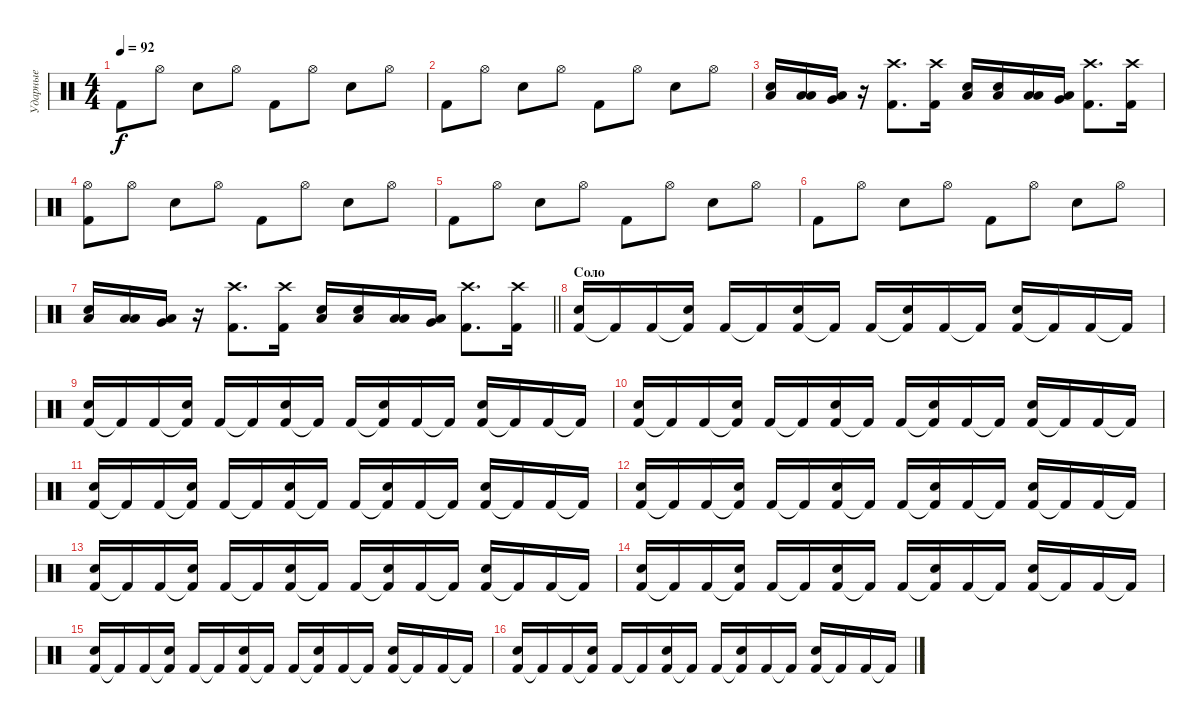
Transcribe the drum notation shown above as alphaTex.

\track ("Ударные" "Ударные") {instrument percussion}
\staff {score}
\articulation defaults
\ts (4 4)
\tempo 92
\clef neutral
\ks c "Kick (hit) 2".8{dy f} "Hi-Hat (open)".8 "Snare (hit) 2".8 "Hi-Hat (open)".8 "Kick (hit) 2".8 "Hi-Hat (open)".8 "Snare (hit) 2".8 "Hi-Hat (open)".8
|
"Kick (hit) 2".8 "Hi-Hat (open)".8 "Snare (hit) 2".8 "Hi-Hat (open)".8 "Kick (hit) 2".8 "Hi-Hat (open)".8 "Snare (hit) 2".8 "Hi-Hat (open)".8 |
("Snare (hit) 2" "Low Floor Tom (hit)").16 ("Low Tom (hit)" "Low Floor Tom (hit)").16 ("Very Low Tom (hit)" "Low Floor Tom (hit)").16 r.16 ("Kick (hit) 2" "Crash high (hit)").8{d} ("Kick (hit) 2" "Crash high (hit)").16 ("Snare (hit) 2" "Low Floor Tom (hit)").16 ("Snare (hit) 2" "Low Floor Tom (hit)").16 ("Low Tom (hit)" "Low Floor Tom (hit)").16 ("Very Low Tom (hit)" "Low Floor Tom (hit)").16 ("Kick (hit) 2" "Crash high (hit)").8{d} ("Kick (hit) 2" "Crash high (hit)").16 |
("Kick (hit) 2" "Hi-Hat (open)").8 "Hi-Hat (open)".8 "Snare (hit) 2".8 "Hi-Hat (open)".8 "Kick (hit) 2".8 "Hi-Hat (open)".8 "Snare (hit) 2".8 "Hi-Hat (open)".8 |
"Kick (hit) 2".8 "Hi-Hat (open)".8 "Snare (hit) 2".8 "Hi-Hat (open)".8 "Kick (hit) 2".8 "Hi-Hat (open)".8 "Snare (hit) 2".8 "Hi-Hat (open)".8 |
"Kick (hit) 2".8 "Hi-Hat (open)".8 "Snare (hit) 2".8 "Hi-Hat (open)".8 "Kick (hit) 2".8 "Hi-Hat (open)".8 "Snare (hit) 2".8 "Hi-Hat (open)".8 |
\barLineRight lightlight
("Snare (hit) 2" "Low Floor Tom (hit)").16 ("Low Tom (hit)" "Low Floor Tom (hit)").16 ("Very Low Tom (hit)" "Low Floor Tom (hit)").16 r.16 ("Kick (hit) 2" "Crash high (hit)").8{d} ("Kick (hit) 2" "Crash high (hit)").16 ("Snare (hit) 2" "Low Floor Tom (hit)").16 ("Snare (hit) 2" "Low Floor Tom (hit)").16 ("Low Tom (hit)" "Low Floor Tom (hit)").16 ("Very Low Tom (hit)" "Low Floor Tom (hit)").16 ("Kick (hit) 2" "Crash high (hit)").8{d} ("Kick (hit) 2" "Crash high (hit)").16 |
\section ("" "Соло")
("Kick (hit) 2" "Snare (hit) 2").16 "Kick (hit) 2"{t}.16 "Kick (hit) 2".16 ("Kick (hit) 2"{t} "Snare (hit) 2").16 "Kick (hit) 2".16 "Kick (hit) 2"{t}.16 ("Kick (hit) 2" "Snare (hit) 2").16 "Kick (hit) 2"{t}.16 "Kick (hit) 2".16 ("Kick (hit) 2"{t} "Snare (hit) 2").16 "Kick (hit) 2".16 "Kick (hit) 2"{t}.16 ("Kick (hit) 2" "Snare (hit) 2").16 "Kick (hit) 2"{t}.16 "Kick (hit) 2".16 "Kick (hit) 2"{t}.16 |
("Kick (hit) 2" "Snare (hit) 2").16 "Kick (hit) 2"{t}.16 "Kick (hit) 2".16 ("Kick (hit) 2"{t} "Snare (hit) 2").16 "Kick (hit) 2".16 "Kick (hit) 2"{t}.16 ("Kick (hit) 2" "Snare (hit) 2").16 "Kick (hit) 2"{t}.16 "Kick (hit) 2".16 ("Kick (hit) 2"{t} "Snare (hit) 2").16 "Kick (hit) 2".16 "Kick (hit) 2"{t}.16 ("Kick (hit) 2" "Snare (hit) 2").16 "Kick (hit) 2"{t}.16 "Kick (hit) 2".16 "Kick (hit) 2"{t}.16 |
("Kick (hit) 2" "Snare (hit) 2").16 "Kick (hit) 2"{t}.16 "Kick (hit) 2".16 ("Kick (hit) 2"{t} "Snare (hit) 2").16 "Kick (hit) 2".16 "Kick (hit) 2"{t}.16 ("Kick (hit) 2" "Snare (hit) 2").16 "Kick (hit) 2"{t}.16 "Kick (hit) 2".16 ("Kick (hit) 2"{t} "Snare (hit) 2").16 "Kick (hit) 2".16 "Kick (hit) 2"{t}.16 ("Kick (hit) 2" "Snare (hit) 2").16 "Kick (hit) 2"{t}.16 "Kick (hit) 2".16 "Kick (hit) 2"{t}.16 |
("Kick (hit) 2" "Snare (hit) 2").16 "Kick (hit) 2"{t}.16 "Kick (hit) 2".16 ("Kick (hit) 2"{t} "Snare (hit) 2").16 "Kick (hit) 2".16 "Kick (hit) 2"{t}.16 ("Kick (hit) 2" "Snare (hit) 2").16 "Kick (hit) 2"{t}.16 "Kick (hit) 2".16 ("Kick (hit) 2"{t} "Snare (hit) 2").16 "Kick (hit) 2".16 "Kick (hit) 2"{t}.16 ("Kick (hit) 2" "Snare (hit) 2").16 "Kick (hit) 2"{t}.16 "Kick (hit) 2".16 "Kick (hit) 2"{t}.16 |
("Kick (hit) 2" "Snare (hit) 2").16 "Kick (hit) 2"{t}.16 "Kick (hit) 2".16 ("Kick (hit) 2"{t} "Snare (hit) 2").16 "Kick (hit) 2".16 "Kick (hit) 2"{t}.16 ("Kick (hit) 2" "Snare (hit) 2").16 "Kick (hit) 2"{t}.16 "Kick (hit) 2".16 ("Kick (hit) 2"{t} "Snare (hit) 2").16 "Kick (hit) 2".16 "Kick (hit) 2"{t}.16 ("Kick (hit) 2" "Snare (hit) 2").16 "Kick (hit) 2"{t}.16 "Kick (hit) 2".16 "Kick (hit) 2"{t}.16 |
("Kick (hit) 2" "Snare (hit) 2").16 "Kick (hit) 2"{t}.16 "Kick (hit) 2".16 ("Kick (hit) 2"{t} "Snare (hit) 2").16 "Kick (hit) 2".16 "Kick (hit) 2"{t}.16 ("Kick (hit) 2" "Snare (hit) 2").16 "Kick (hit) 2"{t}.16 "Kick (hit) 2".16 ("Kick (hit) 2"{t} "Snare (hit) 2").16 "Kick (hit) 2".16 "Kick (hit) 2"{t}.16 ("Kick (hit) 2" "Snare (hit) 2").16 "Kick (hit) 2"{t}.16 "Kick (hit) 2".16 "Kick (hit) 2"{t}.16 |
("Kick (hit) 2" "Snare (hit) 2").16 "Kick (hit) 2"{t}.16 "Kick (hit) 2".16 ("Kick (hit) 2"{t} "Snare (hit) 2").16 "Kick (hit) 2".16 "Kick (hit) 2"{t}.16 ("Kick (hit) 2" "Snare (hit) 2").16 "Kick (hit) 2"{t}.16 "Kick (hit) 2".16 ("Kick (hit) 2"{t} "Snare (hit) 2").16 "Kick (hit) 2".16 "Kick (hit) 2"{t}.16 ("Kick (hit) 2" "Snare (hit) 2").16 "Kick (hit) 2"{t}.16 "Kick (hit) 2".16 "Kick (hit) 2"{t}.16 |
("Kick (hit) 2" "Snare (hit) 2").16 "Kick (hit) 2"{t}.16 "Kick (hit) 2".16 ("Kick (hit) 2"{t} "Snare (hit) 2").16 "Kick (hit) 2".16 "Kick (hit) 2"{t}.16 ("Kick (hit) 2" "Snare (hit) 2").16 "Kick (hit) 2"{t}.16 "Kick (hit) 2".16 ("Kick (hit) 2"{t} "Snare (hit) 2").16 "Kick (hit) 2".16 "Kick (hit) 2"{t}.16 ("Kick (hit) 2" "Snare (hit) 2").16 "Kick (hit) 2"{t}.16 "Kick (hit) 2".16 "Kick (hit) 2"{t}.16 |
("Kick (hit) 2" "Snare (hit) 2").16 "Kick (hit) 2"{t}.16 "Kick (hit) 2".16 ("Kick (hit) 2"{t} "Snare (hit) 2").16 "Kick (hit) 2".16 "Kick (hit) 2"{t}.16 ("Kick (hit) 2" "Snare (hit) 2").16 "Kick (hit) 2"{t}.16 "Kick (hit) 2".16 ("Kick (hit) 2"{t} "Snare (hit) 2").16 "Kick (hit) 2".16 "Kick (hit) 2"{t}.16 ("Kick (hit) 2" "Snare (hit) 2").16 "Kick (hit) 2"{t}.16 "Kick (hit) 2".16 "Kick (hit) 2"{t}.16
